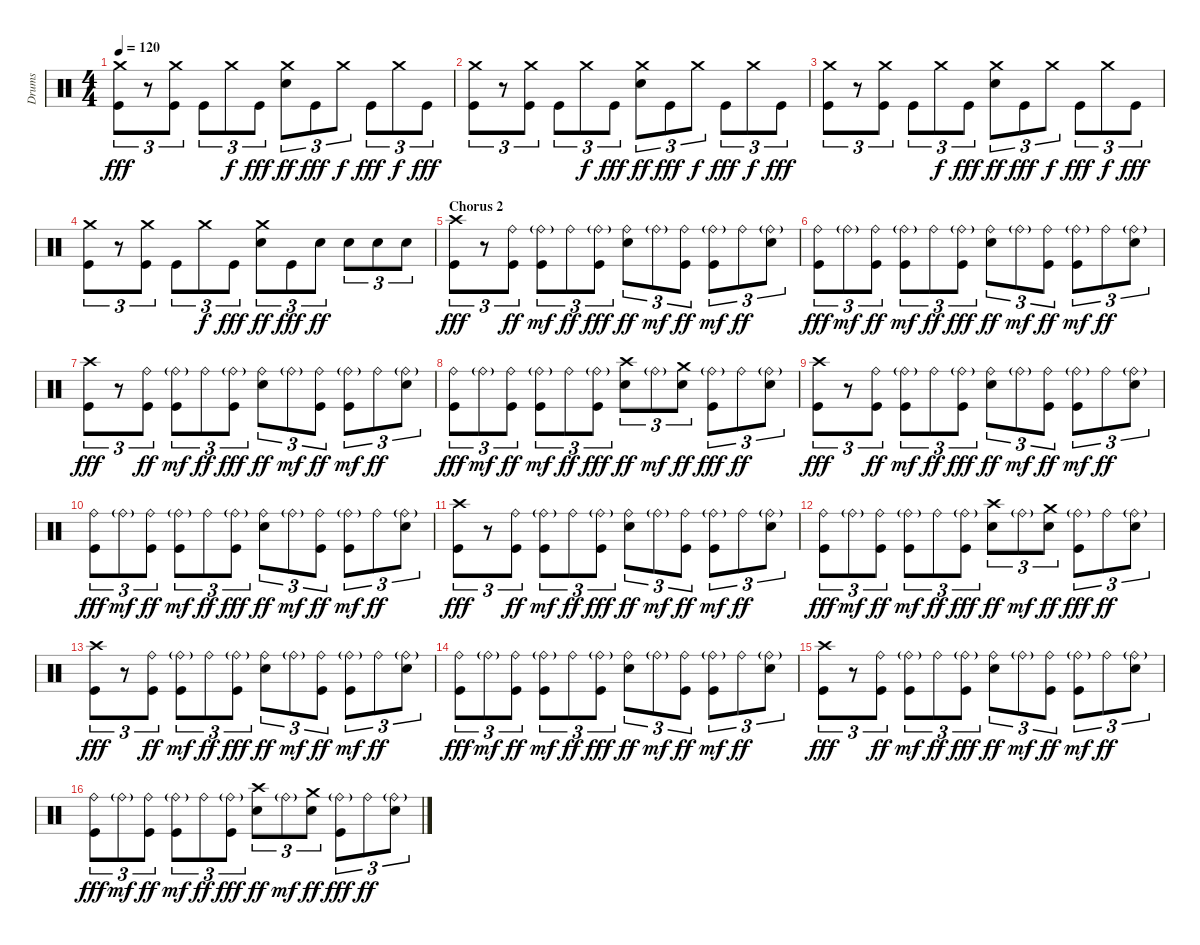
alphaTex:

\track ("Drums" "Drums") {instrument percussion}
\staff {score}
\articulation defaults
\ts (4 4)
\tempo 120
\clef neutral
\ks c
("Crash medium (hit)" "Kick (hit)").8{tu (3 2) dy fff} r.8{tu (3 2)} ("Crash medium (hit)" "Kick (hit)").8{tu (3 2)} "Kick (hit)".8{tu (3 2)} "Crash medium (hit)".8{tu (3 2) dy f} "Kick (hit)".8{tu (3 2) dy fff} ("Crash medium (hit)" "Snare (hit) 2").8{tu (3 2) dy ff} "Kick (hit)".8{tu (3 2) dy fff} "Crash medium (hit)".8{tu (3 2) dy f} "Kick (hit)".8{tu (3 2) dy fff} "Crash medium (hit)".8{tu (3 2) dy f} "Kick (hit)".8{tu (3 2) dy fff} |
("Crash medium (hit)" "Kick (hit)").8{tu (3 2)} r.8{tu (3 2)} ("Crash medium (hit)" "Kick (hit)").8{tu (3 2)} "Kick (hit)".8{tu (3 2)} "Crash medium (hit)".8{tu (3 2) dy f} "Kick (hit)".8{tu (3 2) dy fff} ("Crash medium (hit)" "Snare (hit) 2").8{tu (3 2) dy ff} "Kick (hit)".8{tu (3 2) dy fff} "Crash medium (hit)".8{tu (3 2) dy f} "Kick (hit)".8{tu (3 2) dy fff} "Crash medium (hit)".8{tu (3 2) dy f} "Kick (hit)".8{tu (3 2) dy fff} |
("Crash medium (hit)" "Kick (hit)").8{tu (3 2)} r.8{tu (3 2)} ("Crash medium (hit)" "Kick (hit)").8{tu (3 2)} "Kick (hit)".8{tu (3 2)} "Crash medium (hit)".8{tu (3 2) dy f} "Kick (hit)".8{tu (3 2) dy fff} ("Crash medium (hit)" "Snare (hit) 2").8{tu (3 2) dy ff} "Kick (hit)".8{tu (3 2) dy fff} "Crash medium (hit)".8{tu (3 2) dy f} "Kick (hit)".8{tu (3 2) dy fff} "Crash medium (hit)".8{tu (3 2) dy f} "Kick (hit)".8{tu (3 2) dy fff} |
("Crash medium (hit)" "Kick (hit)").8{tu (3 2)} r.8{tu (3 2)} ("Crash medium (hit)" "Kick (hit)").8{tu (3 2)} "Kick (hit)".8{tu (3 2)} "Crash medium (hit)".8{tu (3 2) dy f} "Kick (hit)".8{tu (3 2) dy fff} ("Crash medium (hit)" "Snare (hit) 2").8{tu (3 2) dy ff} "Kick (hit)".8{tu (3 2) dy fff} "Snare (hit) 2".8{tu (3 2) dy ff} "Snare (hit) 2".8{tu (3 2)} "Snare (hit) 2".8{tu (3 2)} "Snare (hit) 2".8{tu (3 2)} |
\section ("" "Chorus 2")
("Crash high (hit)" "Kick (hit)").8{tu (3 2) dy fff} r.8{tu (3 2)} ("Ride (bell)" "Kick (hit)").8{tu (3 2) dy ff} ("Ride (bell)"{g} "Kick (hit)").8{tu (3 2) dy mf} "Ride (bell)".8{tu (3 2) dy ff} ("Ride (bell)"{g} "Kick (hit)").8{tu (3 2) dy fff} ("Ride (bell)" "Snare (hit) 2").8{tu (3 2) dy ff} "Ride (bell)"{g}.8{tu (3 2) dy mf} ("Ride (bell)" "Kick (hit)").8{tu (3 2) dy ff} ("Ride (bell)"{g} "Kick (hit)").8{tu (3 2) dy mf} "Ride (bell)".8{tu (3 2) dy ff} ("Ride (bell)"{g} "Snare (hit) 2").8{tu (3 2)} |
("Ride (bell)" "Kick (hit)").8{tu (3 2) dy fff} "Ride (bell)"{g}.8{tu (3 2) dy mf} ("Ride (bell)" "Kick (hit)").8{tu (3 2) dy ff} ("Ride (bell)"{g} "Kick (hit)").8{tu (3 2) dy mf} "Ride (bell)".8{tu (3 2) dy ff} ("Ride (bell)"{g} "Kick (hit)").8{tu (3 2) dy fff} ("Ride (bell)" "Snare (hit) 2").8{tu (3 2) dy ff} "Ride (bell)"{g}.8{tu (3 2) dy mf} ("Ride (bell)" "Kick (hit)").8{tu (3 2) dy ff} ("Ride (bell)"{g} "Kick (hit)").8{tu (3 2) dy mf} "Ride (bell)".8{tu (3 2) dy ff} ("Ride (bell)"{g} "Snare (hit) 2").8{tu (3 2)} |
("Crash high (hit)" "Kick (hit)").8{tu (3 2) dy fff} r.8{tu (3 2)} ("Ride (bell)" "Kick (hit)").8{tu (3 2) dy ff} ("Ride (bell)"{g} "Kick (hit)").8{tu (3 2) dy mf} "Ride (bell)".8{tu (3 2) dy ff} ("Ride (bell)"{g} "Kick (hit)").8{tu (3 2) dy fff} ("Ride (bell)" "Snare (hit) 2").8{tu (3 2) dy ff} "Ride (bell)"{g}.8{tu (3 2) dy mf} ("Ride (bell)" "Kick (hit)").8{tu (3 2) dy ff} ("Ride (bell)"{g} "Kick (hit)").8{tu (3 2) dy mf} "Ride (bell)".8{tu (3 2) dy ff} ("Ride (bell)"{g} "Snare (hit) 2").8{tu (3 2)} |
("Ride (bell)" "Kick (hit)").8{tu (3 2) dy fff} "Ride (bell)"{g}.8{tu (3 2) dy mf} ("Ride (bell)" "Kick (hit)").8{tu (3 2) dy ff} ("Ride (bell)"{g} "Kick (hit)").8{tu (3 2) dy mf} "Ride (bell)".8{tu (3 2) dy ff} ("Ride (bell)"{g} "Kick (hit)").8{tu (3 2) dy fff} ("Crash high (hit)" "Snare (hit) 2").8{tu (3 2) dy ff} "Ride (bell)"{g}.8{tu (3 2) dy mf} ("Crash medium (hit)" "Snare (hit) 2").8{tu (3 2) dy ff} ("Ride (bell)"{g} "Kick (hit)").8{tu (3 2) dy fff} "Ride (bell)".8{tu (3 2) dy ff} ("Ride (bell)"{g} "Snare (hit) 2").8{tu (3 2)} |
("Crash high (hit)" "Kick (hit)").8{tu (3 2) dy fff} r.8{tu (3 2)} ("Ride (bell)" "Kick (hit)").8{tu (3 2) dy ff} ("Ride (bell)"{g} "Kick (hit)").8{tu (3 2) dy mf} "Ride (bell)".8{tu (3 2) dy ff} ("Ride (bell)"{g} "Kick (hit)").8{tu (3 2) dy fff} ("Ride (bell)" "Snare (hit) 2").8{tu (3 2) dy ff} "Ride (bell)"{g}.8{tu (3 2) dy mf} ("Ride (bell)" "Kick (hit)").8{tu (3 2) dy ff} ("Ride (bell)"{g} "Kick (hit)").8{tu (3 2) dy mf} "Ride (bell)".8{tu (3 2) dy ff} ("Ride (bell)"{g} "Snare (hit) 2").8{tu (3 2)} |
("Ride (bell)" "Kick (hit)").8{tu (3 2) dy fff} "Ride (bell)"{g}.8{tu (3 2) dy mf} ("Ride (bell)" "Kick (hit)").8{tu (3 2) dy ff} ("Ride (bell)"{g} "Kick (hit)").8{tu (3 2) dy mf} "Ride (bell)".8{tu (3 2) dy ff} ("Ride (bell)"{g} "Kick (hit)").8{tu (3 2) dy fff} ("Ride (bell)" "Snare (hit) 2").8{tu (3 2) dy ff} "Ride (bell)"{g}.8{tu (3 2) dy mf} ("Ride (bell)" "Kick (hit)").8{tu (3 2) dy ff} ("Ride (bell)"{g} "Kick (hit)").8{tu (3 2) dy mf} "Ride (bell)".8{tu (3 2) dy ff} ("Ride (bell)"{g} "Snare (hit) 2").8{tu (3 2)} |
("Crash high (hit)" "Kick (hit)").8{tu (3 2) dy fff} r.8{tu (3 2)} ("Ride (bell)" "Kick (hit)").8{tu (3 2) dy ff} ("Ride (bell)"{g} "Kick (hit)").8{tu (3 2) dy mf} "Ride (bell)".8{tu (3 2) dy ff} ("Ride (bell)"{g} "Kick (hit)").8{tu (3 2) dy fff} ("Ride (bell)" "Snare (hit) 2").8{tu (3 2) dy ff} "Ride (bell)"{g}.8{tu (3 2) dy mf} ("Ride (bell)" "Kick (hit)").8{tu (3 2) dy ff} ("Ride (bell)"{g} "Kick (hit)").8{tu (3 2) dy mf} "Ride (bell)".8{tu (3 2) dy ff} ("Ride (bell)"{g} "Snare (hit) 2").8{tu (3 2)} |
("Ride (bell)" "Kick (hit)").8{tu (3 2) dy fff} "Ride (bell)"{g}.8{tu (3 2) dy mf} ("Ride (bell)" "Kick (hit)").8{tu (3 2) dy ff} ("Ride (bell)"{g} "Kick (hit)").8{tu (3 2) dy mf} "Ride (bell)".8{tu (3 2) dy ff} ("Ride (bell)"{g} "Kick (hit)").8{tu (3 2) dy fff} ("Crash high (hit)" "Snare (hit) 2").8{tu (3 2) dy ff} "Ride (bell)"{g}.8{tu (3 2) dy mf} ("Crash medium (hit)" "Snare (hit) 2").8{tu (3 2) dy ff} ("Ride (bell)"{g} "Kick (hit)").8{tu (3 2) dy fff} "Ride (bell)".8{tu (3 2) dy ff} ("Ride (bell)"{g} "Snare (hit) 2").8{tu (3 2)} |
("Crash high (hit)" "Kick (hit)").8{tu (3 2) dy fff} r.8{tu (3 2)} ("Ride (bell)" "Kick (hit)").8{tu (3 2) dy ff} ("Ride (bell)"{g} "Kick (hit)").8{tu (3 2) dy mf} "Ride (bell)".8{tu (3 2) dy ff} ("Ride (bell)"{g} "Kick (hit)").8{tu (3 2) dy fff} ("Ride (bell)" "Snare (hit) 2").8{tu (3 2) dy ff} "Ride (bell)"{g}.8{tu (3 2) dy mf} ("Ride (bell)" "Kick (hit)").8{tu (3 2) dy ff} ("Ride (bell)"{g} "Kick (hit)").8{tu (3 2) dy mf} "Ride (bell)".8{tu (3 2) dy ff} ("Ride (bell)"{g} "Snare (hit) 2").8{tu (3 2)} |
("Ride (bell)" "Kick (hit)").8{tu (3 2) dy fff} "Ride (bell)"{g}.8{tu (3 2) dy mf} ("Ride (bell)" "Kick (hit)").8{tu (3 2) dy ff} ("Ride (bell)"{g} "Kick (hit)").8{tu (3 2) dy mf} "Ride (bell)".8{tu (3 2) dy ff} ("Ride (bell)"{g} "Kick (hit)").8{tu (3 2) dy fff} ("Ride (bell)" "Snare (hit) 2").8{tu (3 2) dy ff} "Ride (bell)"{g}.8{tu (3 2) dy mf} ("Ride (bell)" "Kick (hit)").8{tu (3 2) dy ff} ("Ride (bell)"{g} "Kick (hit)").8{tu (3 2) dy mf} "Ride (bell)".8{tu (3 2) dy ff} ("Ride (bell)"{g} "Snare (hit) 2").8{tu (3 2)} |
("Crash high (hit)" "Kick (hit)").8{tu (3 2) dy fff} r.8{tu (3 2)} ("Ride (bell)" "Kick (hit)").8{tu (3 2) dy ff} ("Ride (bell)"{g} "Kick (hit)").8{tu (3 2) dy mf} "Ride (bell)".8{tu (3 2) dy ff} ("Ride (bell)"{g} "Kick (hit)").8{tu (3 2) dy fff} ("Ride (bell)" "Snare (hit) 2").8{tu (3 2) dy ff} "Ride (bell)"{g}.8{tu (3 2) dy mf} ("Ride (bell)" "Kick (hit)").8{tu (3 2) dy ff} ("Ride (bell)"{g} "Kick (hit)").8{tu (3 2) dy mf} "Ride (bell)".8{tu (3 2) dy ff} ("Ride (bell)"{g} "Snare (hit) 2").8{tu (3 2)} |
("Ride (bell)" "Kick (hit)").8{tu (3 2) dy fff} "Ride (bell)"{g}.8{tu (3 2) dy mf} ("Ride (bell)" "Kick (hit)").8{tu (3 2) dy ff} ("Ride (bell)"{g} "Kick (hit)").8{tu (3 2) dy mf} "Ride (bell)".8{tu (3 2) dy ff} ("Ride (bell)"{g} "Kick (hit)").8{tu (3 2) dy fff} ("Crash high (hit)" "Snare (hit) 2").8{tu (3 2) dy ff} "Ride (bell)"{g}.8{tu (3 2) dy mf} ("Crash medium (hit)" "Snare (hit) 2").8{tu (3 2) dy ff} ("Ride (bell)"{g} "Kick (hit)").8{tu (3 2) dy fff} "Ride (bell)".8{tu (3 2) dy ff} ("Ride (bell)"{g} "Snare (hit) 2").8{tu (3 2)}
